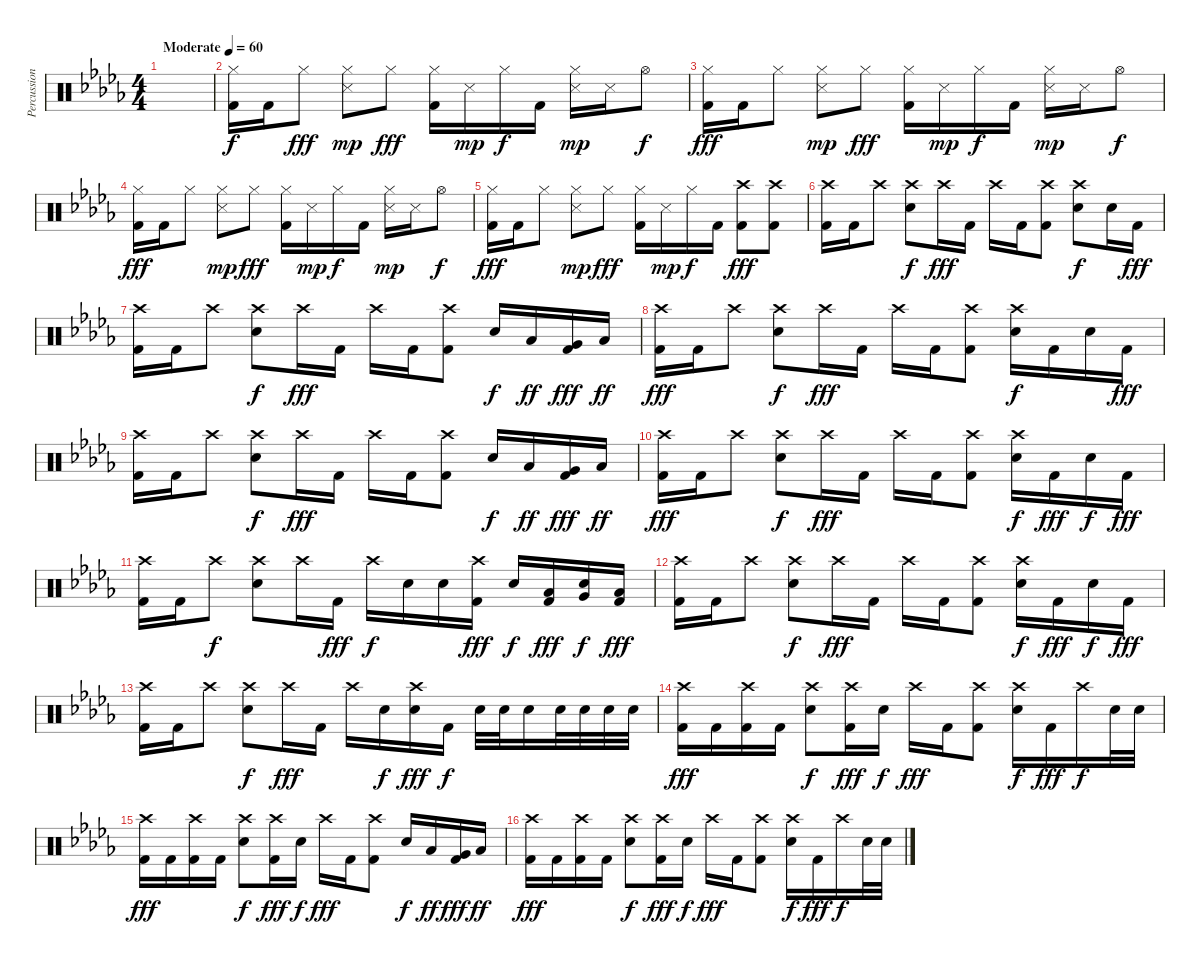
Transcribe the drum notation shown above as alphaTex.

\track ("Percussion" "Percussion") {instrument percussion}
\staff {score}
\articulation defaults
\ts (4 4)
\tempo (60 "Moderate")
\clef neutral
\ks bbminor
|
("Hi-Hat (closed)" "Kick (hit) 2").16 "Kick (hit) 2".16 "Hi-Hat (closed)".8{dy fff} ("Hi-Hat (closed)" "Snare (side stick) 3").8{dy mp} "Hi-Hat (closed)".8{dy fff} ("Hi-Hat (closed)" "Kick (hit) 2").16 "Snare (side stick) 3".16{dy mp} "Hi-Hat (closed)".16{dy f} "Kick (hit) 2".16 ("Hi-Hat (closed)" "Snare (side stick) 3").16{dy mp} "Snare (side stick) 3".16 "Hi-Hat (open)".8{dy f} |
("Hi-Hat (closed)" "Kick (hit) 2").16{dy fff} "Kick (hit) 2".16 "Hi-Hat (closed)".8 ("Hi-Hat (closed)" "Snare (side stick) 3").8{dy mp} "Hi-Hat (closed)".8{dy fff} ("Hi-Hat (closed)" "Kick (hit) 2").16 "Snare (side stick) 3".16{dy mp} "Hi-Hat (closed)".16{dy f} "Kick (hit) 2".16 ("Hi-Hat (closed)" "Snare (side stick) 3").16{dy mp} "Snare (side stick) 3".16 "Hi-Hat (open)".8{dy f} |
("Hi-Hat (closed)" "Kick (hit) 2").16{dy fff} "Kick (hit) 2".16 "Hi-Hat (closed)".8 ("Hi-Hat (closed)" "Snare (side stick) 3").8{dy mp} "Hi-Hat (closed)".8{dy fff} ("Hi-Hat (closed)" "Kick (hit) 2").16 "Snare (side stick) 3".16{dy mp} "Hi-Hat (closed)".16{dy f} "Kick (hit) 2".16 ("Hi-Hat (closed)" "Snare (side stick) 3").16{dy mp} "Snare (side stick) 3".16 "Hi-Hat (open)".8{dy f} |
("Hi-Hat (closed)" "Kick (hit) 2").16{dy fff} "Kick (hit) 2".16 "Hi-Hat (closed)".8 ("Hi-Hat (closed)" "Snare (side stick) 3").8{dy mp} "Hi-Hat (closed)".8{dy fff} ("Hi-Hat (closed)" "Kick (hit) 2").16 "Snare (side stick) 3".16{dy mp} "Hi-Hat (closed)".16{dy f} "Kick (hit) 2".16 ("Crash high (hit)" "Kick (hit) 2").8{dy fff} ("Crash high (hit)" "Kick (hit) 2").8 |
("Crash high (hit)" "Kick (hit) 2").16 "Kick (hit) 2".16 "Crash high (hit)".8 ("Crash high (hit)" "Electric Snare (hit)").8{dy f} "Crash high (hit)".16{dy fff} "Kick (hit) 2".16 "Crash high (hit)".16 "Kick (hit) 2".16 ("Crash high (hit)" "Kick (hit) 2").8 ("Crash high (hit)" "Electric Snare (hit)").8{dy f} "Electric Snare (hit)".16 "Kick (hit) 2".16{dy fff} |
("Crash high (hit)" "Kick (hit) 2").16 "Kick (hit) 2".16 "Crash high (hit)".8 ("Crash high (hit)" "Electric Snare (hit)").8{dy f} "Crash high (hit)".16{dy fff} "Kick (hit) 2".16 "Crash high (hit)".16 "Kick (hit) 2".16 ("Crash high (hit)" "Kick (hit) 2").8 "Electric Snare (hit)".16{dy f} "Low Tom (hit)".16{dy ff} ("Very Low Tom (hit)" "Kick (hit) 2").16{dy fff} "Low Floor Tom (hit)".16{dy ff} |
("Crash high (hit)" "Kick (hit) 2").16{dy fff} "Kick (hit) 2".16 "Crash high (hit)".8 ("Crash high (hit)" "Electric Snare (hit)").8{dy f} "Crash high (hit)".16{dy fff} "Kick (hit) 2".16 "Crash high (hit)".16 "Kick (hit) 2".16 ("Crash high (hit)" "Kick (hit) 2").8 ("Crash high (hit)" "Electric Snare (hit)").16{dy f} "Kick (hit) 2".16 "Electric Snare (hit)".16 "Kick (hit) 2".16{dy fff} |
("Crash high (hit)" "Kick (hit) 2").16 "Kick (hit) 2".16 "Crash high (hit)".8 ("Crash high (hit)" "Electric Snare (hit)").8{dy f} "Crash high (hit)".16{dy fff} "Kick (hit) 2".16 "Crash high (hit)".16 "Kick (hit) 2".16 ("Crash high (hit)" "Kick (hit) 2").8 "Electric Snare (hit)".16{dy f} "Low Tom (hit)".16{dy ff} ("Very Low Tom (hit)" "Kick (hit) 2").16{dy fff} "Low Floor Tom (hit)".16{dy ff} |
("Crash high (hit)" "Kick (hit) 2").16{dy fff} "Kick (hit) 2".16 "Crash high (hit)".8 ("Crash high (hit)" "Electric Snare (hit)").8{dy f} "Crash high (hit)".16{dy fff} "Kick (hit) 2".16 "Crash high (hit)".16 "Kick (hit) 2".16 ("Crash high (hit)" "Kick (hit) 2").8 ("Crash high (hit)" "Electric Snare (hit)").16{dy f} "Kick (hit) 2".16{dy fff} "Electric Snare (hit)".16{dy f} "Kick (hit) 2".16{dy fff} |
("Crash high (hit)" "Kick (hit) 2").16 "Kick (hit) 2".16 "Crash high (hit)".8{dy f} ("Crash high (hit)" "Electric Snare (hit)").8 "Crash high (hit)".16 "Kick (hit) 2".16{dy fff} "Crash high (hit)".16{dy f} "Electric Snare (hit)".16 "Electric Snare (hit)".16 ("Crash high (hit)" "Kick (hit) 2").16{dy fff} "Electric Snare (hit)".16{dy f} ("Low Tom (hit)" "Kick (hit) 2").16{dy fff} ("Electric Snare (hit)" "Very Low Tom (hit)").16{dy f} ("Low Floor Tom (hit)" "Kick (hit) 2").16{dy fff} |
("Crash high (hit)" "Kick (hit) 2").16 "Kick (hit) 2".16 "Crash high (hit)".8 ("Crash high (hit)" "Electric Snare (hit)").8{dy f} "Crash high (hit)".16{dy fff} "Kick (hit) 2".16 "Crash high (hit)".16 "Kick (hit) 2".16 ("Crash high (hit)" "Kick (hit) 2").8 ("Crash high (hit)" "Electric Snare (hit)").16{dy f} "Kick (hit) 2".16{dy fff} "Electric Snare (hit)".16{dy f} "Kick (hit) 2".16{dy fff} |
("Crash high (hit)" "Kick (hit) 2").16 "Kick (hit) 2".16 "Crash high (hit)".8 ("Crash high (hit)" "Electric Snare (hit)").8{dy f} "Crash high (hit)".16{dy fff} "Kick (hit) 2".16 "Crash high (hit)".16 "Electric Snare (hit)".16{dy f} ("Crash high (hit)" "Electric Snare (hit)").16{dy fff} "Kick (hit) 2".16{dy f} "Electric Snare (hit)".32 "Electric Snare (hit)".32 "Electric Snare (hit)".16 "Electric Snare (hit)".32 "Electric Snare (hit)".32 "Electric Snare (hit)".32 "Electric Snare (hit)".32 |
("Crash high (hit)" "Kick (hit) 2").16{dy fff} "Kick (hit) 2".16 ("Crash high (hit)" "Kick (hit) 2").16 "Kick (hit) 2".16 ("Crash high (hit)" "Electric Snare (hit)").8{dy f} ("Crash high (hit)" "Kick (hit) 2").16{dy fff} "Electric Snare (hit)".16{dy f} "Crash high (hit)".16{dy fff} "Kick (hit) 2".16 ("Crash high (hit)" "Kick (hit) 2").8 ("Crash high (hit)" "Electric Snare (hit)").16{dy f} "Kick (hit) 2".16{dy fff} "Crash high (hit)".16{dy f} "Electric Snare (hit)".32 "Electric Snare (hit)".32 |
("Crash high (hit)" "Kick (hit) 2").16{dy fff} "Kick (hit) 2".16 ("Crash high (hit)" "Kick (hit) 2").16 "Kick (hit) 2".16 ("Crash high (hit)" "Electric Snare (hit)").8{dy f} ("Crash high (hit)" "Kick (hit) 2").16{dy fff} "Electric Snare (hit)".16{dy f} "Crash high (hit)".16{dy fff} "Kick (hit) 2".16 ("Crash high (hit)" "Kick (hit) 2").8 "Electric Snare (hit)".16{dy f} "Low Tom (hit)".16{dy ff} ("Very Low Tom (hit)" "Kick (hit) 2").16{dy fff} "Low Floor Tom (hit)".16{dy ff} |
("Crash high (hit)" "Kick (hit) 2").16{dy fff} "Kick (hit) 2".16 ("Crash high (hit)" "Kick (hit) 2").16 "Kick (hit) 2".16 ("Crash high (hit)" "Electric Snare (hit)").8{dy f} ("Crash high (hit)" "Kick (hit) 2").16{dy fff} "Electric Snare (hit)".16{dy f} "Crash high (hit)".16{dy fff} "Kick (hit) 2".16 ("Crash high (hit)" "Kick (hit) 2").8 ("Crash high (hit)" "Electric Snare (hit)").16{dy f} "Kick (hit) 2".16{dy fff} "Crash high (hit)".16{dy f} "Electric Snare (hit)".32 "Electric Snare (hit)".32
